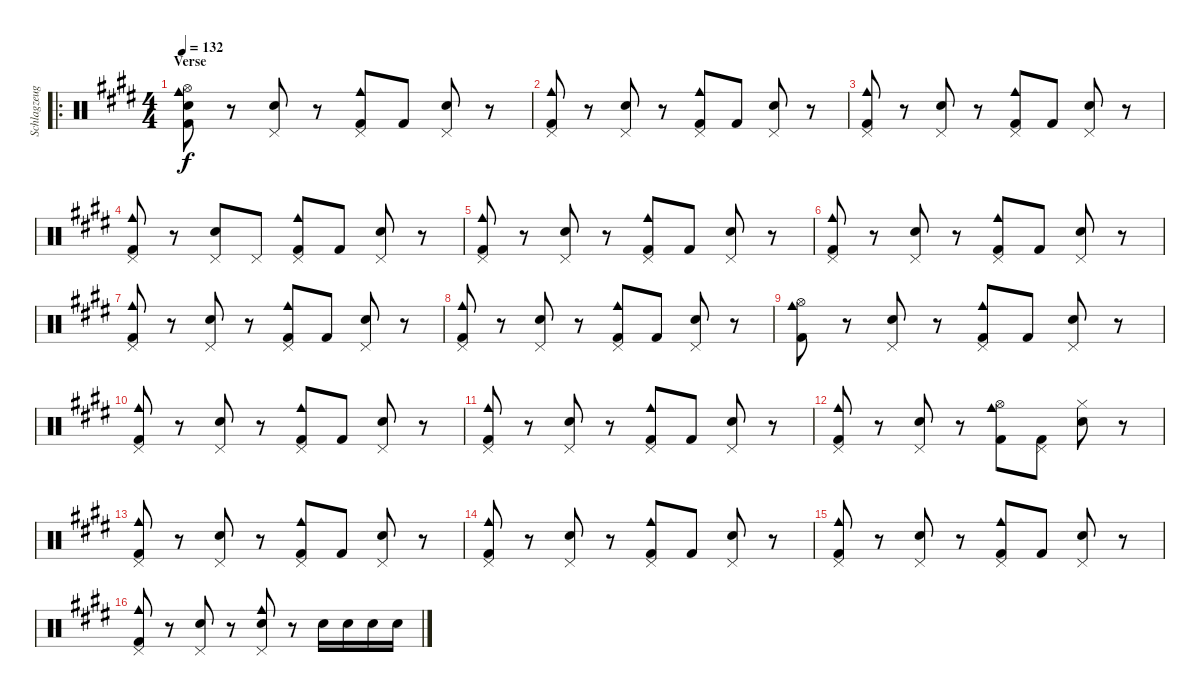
\track ("Schlagzeug" "Schlagzeug") {instrument percussion}
\staff {score}
\articulation defaults
\ro
\ts (4 4)
\section ("" "Verse")
\tempo 132
\clef neutral
\ks e
("Hi-Hat (open)" "Kick (hit) 2" "Cowbell medium (hit)" "Snare (hit) 2").8{dy f} r.8 ("Pedal Hi-Hat (hit)" "Snare (hit) 2").8 r.8 ("Pedal Hi-Hat (hit)" "Kick (hit) 2" "Cowbell medium (hit)").8 "Kick (hit) 2".8 ("Pedal Hi-Hat (hit)" "Snare (hit) 2").8 r.8 |
("Pedal Hi-Hat (hit)" "Kick (hit) 2" "Cowbell medium (hit)").8 r.8 ("Pedal Hi-Hat (hit)" "Snare (hit) 2").8 r.8 ("Pedal Hi-Hat (hit)" "Kick (hit) 2" "Cowbell medium (hit)").8 "Kick (hit) 2".8 ("Pedal Hi-Hat (hit)" "Snare (hit) 2").8 r.8 |
("Pedal Hi-Hat (hit)" "Kick (hit) 2" "Cowbell medium (hit)").8 r.8 ("Pedal Hi-Hat (hit)" "Snare (hit) 2").8 r.8 ("Pedal Hi-Hat (hit)" "Kick (hit) 2" "Cowbell medium (hit)").8 "Kick (hit) 2".8 ("Pedal Hi-Hat (hit)" "Snare (hit) 2").8 r.8 |
("Pedal Hi-Hat (hit)" "Kick (hit) 2" "Cowbell medium (hit)").8 r.8 ("Pedal Hi-Hat (hit)" "Snare (hit) 2").8 "Pedal Hi-Hat (hit)".8 ("Pedal Hi-Hat (hit)" "Kick (hit) 2" "Cowbell medium (hit)").8 "Kick (hit) 2".8 ("Pedal Hi-Hat (hit)" "Snare (hit) 2").8 r.8 |
("Pedal Hi-Hat (hit)" "Kick (hit) 2" "Cowbell medium (hit)").8 r.8 ("Pedal Hi-Hat (hit)" "Snare (hit) 2").8 r.8 ("Pedal Hi-Hat (hit)" "Kick (hit) 2" "Cowbell medium (hit)").8 "Kick (hit) 2".8 ("Pedal Hi-Hat (hit)" "Snare (hit) 2").8 r.8 |
("Pedal Hi-Hat (hit)" "Kick (hit) 2" "Cowbell medium (hit)").8 r.8 ("Pedal Hi-Hat (hit)" "Snare (hit) 2").8 r.8 ("Pedal Hi-Hat (hit)" "Kick (hit) 2" "Cowbell medium (hit)").8 "Kick (hit) 2".8 ("Pedal Hi-Hat (hit)" "Snare (hit) 2").8 r.8 |
("Pedal Hi-Hat (hit)" "Kick (hit) 2" "Cowbell medium (hit)").8 r.8 ("Pedal Hi-Hat (hit)" "Snare (hit) 2").8 r.8 ("Pedal Hi-Hat (hit)" "Kick (hit) 2" "Cowbell medium (hit)").8 "Kick (hit) 2".8 ("Pedal Hi-Hat (hit)" "Snare (hit) 2").8 r.8 |
("Pedal Hi-Hat (hit)" "Kick (hit) 2" "Cowbell medium (hit)").8 r.8 ("Pedal Hi-Hat (hit)" "Snare (hit) 2").8 r.8 ("Pedal Hi-Hat (hit)" "Kick (hit) 2" "Cowbell medium (hit)").8 "Kick (hit) 2".8 ("Pedal Hi-Hat (hit)" "Snare (hit) 2").8 r.8 |
("Hi-Hat (open)" "Kick (hit) 2" "Cowbell medium (hit)").8 r.8 ("Pedal Hi-Hat (hit)" "Snare (hit) 2").8 r.8 ("Pedal Hi-Hat (hit)" "Kick (hit) 2" "Cowbell medium (hit)").8 "Kick (hit) 2".8 ("Pedal Hi-Hat (hit)" "Snare (hit) 2").8 r.8 |
("Pedal Hi-Hat (hit)" "Kick (hit) 2" "Cowbell medium (hit)").8 r.8 ("Pedal Hi-Hat (hit)" "Snare (hit) 2").8 r.8 ("Pedal Hi-Hat (hit)" "Kick (hit) 2" "Cowbell medium (hit)").8 "Kick (hit) 2".8 ("Pedal Hi-Hat (hit)" "Snare (hit) 2").8 r.8 |
("Pedal Hi-Hat (hit)" "Kick (hit) 2" "Cowbell medium (hit)").8 r.8 ("Pedal Hi-Hat (hit)" "Snare (hit) 2").8 r.8 ("Pedal Hi-Hat (hit)" "Kick (hit) 2" "Cowbell medium (hit)").8 "Kick (hit) 2".8 ("Pedal Hi-Hat (hit)" "Snare (hit) 2").8 r.8 |
("Pedal Hi-Hat (hit)" "Kick (hit) 2" "Cowbell medium (hit)").8 r.8 ("Pedal Hi-Hat (hit)" "Snare (hit) 2").8 r.8 ("Hi-Hat (open)" "Kick (hit) 2" "Cowbell medium (hit)").8 ("Pedal Hi-Hat (hit)" "Kick (hit) 2").8 ("Hi-Hat (closed)" "Snare (hit) 2").8 r.8 |
("Pedal Hi-Hat (hit)" "Kick (hit) 2" "Cowbell medium (hit)").8 r.8 ("Pedal Hi-Hat (hit)" "Snare (hit) 2").8 r.8 ("Pedal Hi-Hat (hit)" "Kick (hit) 2" "Cowbell medium (hit)").8 "Kick (hit) 2".8 ("Pedal Hi-Hat (hit)" "Snare (hit) 2").8 r.8 |
("Pedal Hi-Hat (hit)" "Kick (hit) 2" "Cowbell medium (hit)").8 r.8 ("Pedal Hi-Hat (hit)" "Snare (hit) 2").8 r.8 ("Pedal Hi-Hat (hit)" "Kick (hit) 2" "Cowbell medium (hit)").8 "Kick (hit) 2".8 ("Pedal Hi-Hat (hit)" "Snare (hit) 2").8 r.8 |
("Pedal Hi-Hat (hit)" "Kick (hit) 2" "Cowbell medium (hit)").8 r.8 ("Pedal Hi-Hat (hit)" "Snare (hit) 2").8 r.8 ("Pedal Hi-Hat (hit)" "Kick (hit) 2" "Cowbell medium (hit)").8 "Kick (hit) 2".8 ("Pedal Hi-Hat (hit)" "Snare (hit) 2").8 r.8 |
("Pedal Hi-Hat (hit)" "Kick (hit) 2" "Cowbell medium (hit)").8 r.8 ("Pedal Hi-Hat (hit)" "Snare (hit) 2").8 r.8 ("Pedal Hi-Hat (hit)" "Snare (hit) 2" "Cowbell medium (hit)").8 r.8 "Snare (hit) 2".16 "Snare (hit) 2".16 "Snare (hit) 2".16 "Snare (hit) 2".16
